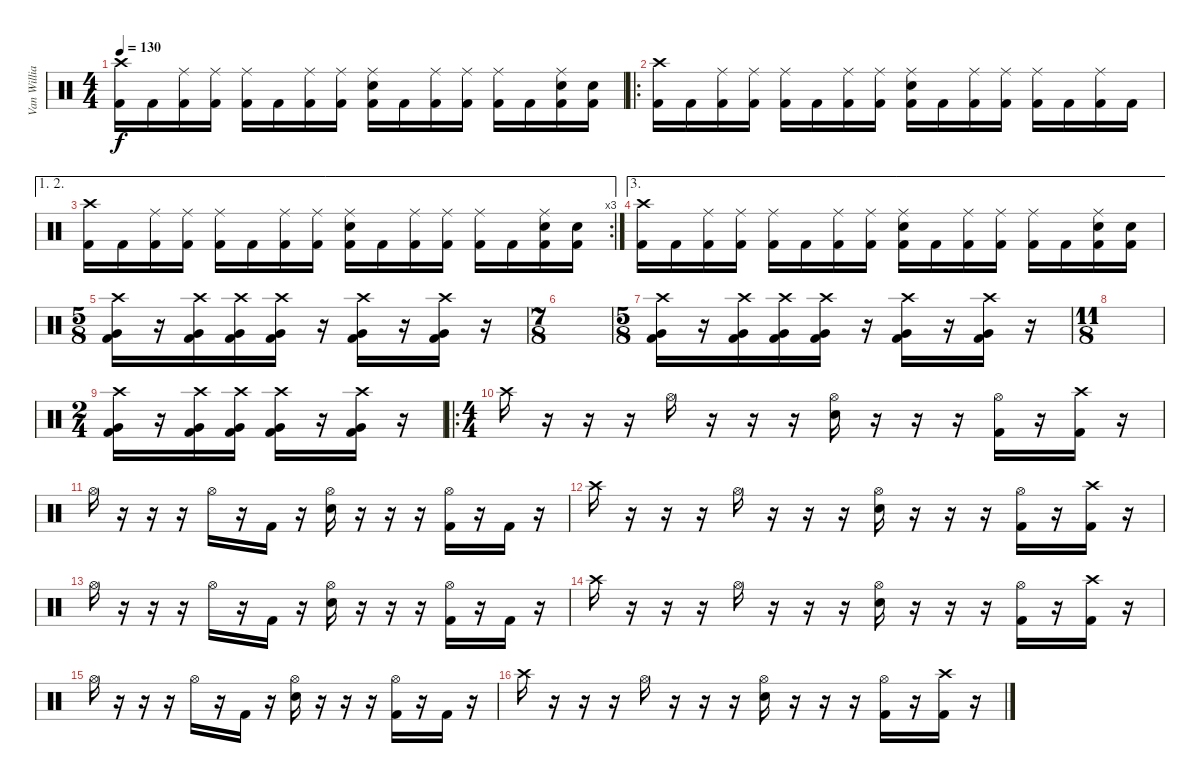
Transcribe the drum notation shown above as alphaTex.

\track ("Van Williams" "Van Willia") {instrument percussion}
\staff {score}
\articulation defaults
\ts (4 4)
\tempo 130
\clef neutral
\ks c
("Crash high (hit)" "Kick (hit) 2").16{dy f} "Kick (hit) 2".16 ("Ride (middle)" "Kick (hit) 2").16 ("Ride (middle)" "Kick (hit) 2").16 ("Ride (middle)" "Kick (hit) 2").16 "Kick (hit) 2".16 ("Ride (middle)" "Kick (hit) 2").16 ("Ride (middle)" "Kick (hit) 2").16 ("Ride (middle)" "Kick (hit) 2" "Electric Snare (hit)").16 "Kick (hit) 2".16 ("Ride (middle)" "Kick (hit) 2").16 ("Ride (middle)" "Kick (hit) 2").16 ("Ride (middle)" "Kick (hit) 2").16 "Kick (hit) 2".16 ("Ride (middle)" "Kick (hit) 2" "Electric Snare (hit)").16 ("Kick (hit) 2" "Electric Snare (hit)").16 |
\ro
("Crash high (hit)" "Kick (hit) 2").16 "Kick (hit) 2".16 ("Ride (middle)" "Kick (hit) 2").16 ("Ride (middle)" "Kick (hit) 2").16 ("Ride (middle)" "Kick (hit) 2").16 "Kick (hit) 2".16 ("Ride (middle)" "Kick (hit) 2").16 ("Ride (middle)" "Kick (hit) 2").16 ("Ride (middle)" "Kick (hit) 2" "Electric Snare (hit)").16 "Kick (hit) 2".16 ("Ride (middle)" "Kick (hit) 2").16 ("Ride (middle)" "Kick (hit) 2").16 ("Ride (middle)" "Kick (hit) 2").16 "Kick (hit) 2".16 ("Ride (middle)" "Kick (hit) 2").16 "Kick (hit) 2".16 |
\ae (1 2)
\rc 3
("Crash high (hit)" "Kick (hit) 2").16 "Kick (hit) 2".16 ("Ride (middle)" "Kick (hit) 2").16 ("Ride (middle)" "Kick (hit) 2").16 ("Ride (middle)" "Kick (hit) 2").16 "Kick (hit) 2".16 ("Ride (middle)" "Kick (hit) 2").16 ("Ride (middle)" "Kick (hit) 2").16 ("Ride (middle)" "Kick (hit) 2" "Electric Snare (hit)").16 "Kick (hit) 2".16 ("Ride (middle)" "Kick (hit) 2").16 ("Ride (middle)" "Kick (hit) 2").16 ("Ride (middle)" "Kick (hit) 2").16 "Kick (hit) 2".16 ("Ride (middle)" "Kick (hit) 2" "Electric Snare (hit)").16 ("Kick (hit) 2" "Electric Snare (hit)").16 |
\ae 3
("Crash high (hit)" "Kick (hit) 2").16 "Kick (hit) 2".16 ("Ride (middle)" "Kick (hit) 2").16 ("Ride (middle)" "Kick (hit) 2").16 ("Ride (middle)" "Kick (hit) 2").16 "Kick (hit) 2".16 ("Ride (middle)" "Kick (hit) 2").16 ("Ride (middle)" "Kick (hit) 2").16 ("Ride (middle)" "Kick (hit) 2" "Electric Snare (hit)").16 "Kick (hit) 2".16 ("Ride (middle)" "Kick (hit) 2").16 ("Ride (middle)" "Kick (hit) 2").16 ("Ride (middle)" "Kick (hit) 2").16 "Kick (hit) 2".16 ("Ride (middle)" "Kick (hit) 2" "Electric Snare (hit)").16 ("Kick (hit) 2" "Electric Snare (hit)").16 |
\ts (5 8)
("Crash high (hit)" "Kick (hit) 2" "Very Low Tom (hit)").16 r.16 ("Crash high (hit)" "Kick (hit) 2" "Very Low Tom (hit)").16 ("Crash high (hit)" "Kick (hit) 2" "Very Low Tom (hit)").16 ("Crash high (hit)" "Kick (hit) 2" "Very Low Tom (hit)").16 r.16 ("Crash high (hit)" "Kick (hit) 2" "Very Low Tom (hit)").16 r.16 ("Crash high (hit)" "Kick (hit) 2" "Very Low Tom (hit)").16 r.16 |
\ts (7 8)
|
\ts (5 8)
("Crash high (hit)" "Kick (hit) 2" "Very Low Tom (hit)").16 r.16 ("Crash high (hit)" "Kick (hit) 2" "Very Low Tom (hit)").16 ("Crash high (hit)" "Kick (hit) 2" "Very Low Tom (hit)").16 ("Crash high (hit)" "Kick (hit) 2" "Very Low Tom (hit)").16 r.16 ("Crash high (hit)" "Kick (hit) 2" "Very Low Tom (hit)").16 r.16 ("Crash high (hit)" "Kick (hit) 2" "Very Low Tom (hit)").16 r.16 |
\ts (11 8)
|
\ts (2 4)
("Crash high (hit)" "Kick (hit) 2" "Very Low Tom (hit)").16 r.16 ("Crash high (hit)" "Kick (hit) 2" "Very Low Tom (hit)").16 ("Crash high (hit)" "Kick (hit) 2" "Very Low Tom (hit)").16 ("Crash high (hit)" "Kick (hit) 2" "Very Low Tom (hit)").16 r.16 ("Crash high (hit)" "Kick (hit) 2" "Very Low Tom (hit)").16 r.16 |
\ro
\ts (4 4)
"Crash high (hit)".16 r.16 r.16 r.16 "Hi-Hat (open)".16 r.16 r.16 r.16 ("Hi-Hat (open)" "Electric Snare (hit)").16 r.16 r.16 r.16 ("Hi-Hat (open)" "Kick (hit) 2").16 r.16 ("Crash high (hit)" "Kick (hit) 2").16 r.16 |
"Hi-Hat (open)".16 r.16 r.16 r.16 "Hi-Hat (open)".16 r.16 "Kick (hit) 2".16 r.16 ("Hi-Hat (open)" "Electric Snare (hit)").16 r.16 r.16 r.16 ("Hi-Hat (open)" "Kick (hit) 2").16 r.16 "Kick (hit) 2".16 r.16 |
"Crash high (hit)".16 r.16 r.16 r.16 "Hi-Hat (open)".16 r.16 r.16 r.16 ("Hi-Hat (open)" "Electric Snare (hit)").16 r.16 r.16 r.16 ("Hi-Hat (open)" "Kick (hit) 2").16 r.16 ("Crash high (hit)" "Kick (hit) 2").16 r.16 |
"Hi-Hat (open)".16 r.16 r.16 r.16 "Hi-Hat (open)".16 r.16 "Kick (hit) 2".16 r.16 ("Hi-Hat (open)" "Electric Snare (hit)").16 r.16 r.16 r.16 ("Hi-Hat (open)" "Kick (hit) 2").16 r.16 "Kick (hit) 2".16 r.16 |
"Crash high (hit)".16 r.16 r.16 r.16 "Hi-Hat (open)".16 r.16 r.16 r.16 ("Hi-Hat (open)" "Electric Snare (hit)").16 r.16 r.16 r.16 ("Hi-Hat (open)" "Kick (hit) 2").16 r.16 ("Crash high (hit)" "Kick (hit) 2").16 r.16 |
"Hi-Hat (open)".16 r.16 r.16 r.16 "Hi-Hat (open)".16 r.16 "Kick (hit) 2".16 r.16 ("Hi-Hat (open)" "Electric Snare (hit)").16 r.16 r.16 r.16 ("Hi-Hat (open)" "Kick (hit) 2").16 r.16 "Kick (hit) 2".16 r.16 |
"Crash high (hit)".16 r.16 r.16 r.16 "Hi-Hat (open)".16 r.16 r.16 r.16 ("Hi-Hat (open)" "Electric Snare (hit)").16 r.16 r.16 r.16 ("Hi-Hat (open)" "Kick (hit) 2").16 r.16 ("Crash high (hit)" "Kick (hit) 2").16 r.16
